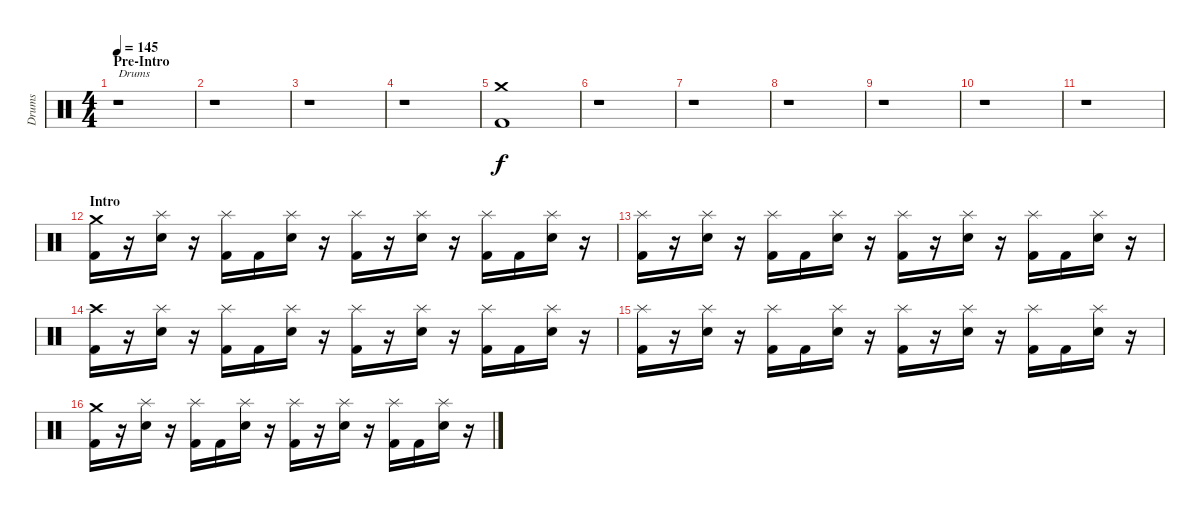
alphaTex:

\track ("Drums" "Drums") {instrument percussion}
\staff {score}
\articulation defaults
\ts (4 4)
\section ("" "Pre-Intro")
\tempo 145
\clef neutral
\ks c
r.1{txt "Drums" dy f} |
r.1 |
r.1 |
r.1 |
("Crash medium (hit)" "Kick (hit) 2").1 |
r.1 |
r.1 |
r.1 |
r.1 |
r.1 |
r.1 |
\section ("" "Intro")
("Crash medium (hit)" "Kick (hit) 2").16 r.16 ("Splash (hit)" "Snare (hit) 2").16 r.16 ("Splash (hit)" "Kick (hit) 2").16 "Kick (hit) 2".16 ("Splash (hit)" "Snare (hit) 2").16 r.16 ("Splash (hit)" "Kick (hit) 2").16 r.16 ("Splash (hit)" "Snare (hit) 2").16 r.16 ("Splash (hit)" "Kick (hit) 2").16 "Kick (hit) 2".16 ("Splash (hit)" "Snare (hit) 2").16 r.16 |
("Splash (hit)" "Kick (hit) 2").16 r.16 ("Splash (hit)" "Snare (hit) 2").16 r.16 ("Splash (hit)" "Kick (hit) 2").16 "Kick (hit) 2".16 ("Splash (hit)" "Snare (hit) 2").16 r.16 ("Splash (hit)" "Kick (hit) 2").16 r.16 ("Splash (hit)" "Snare (hit) 2").16 r.16 ("Splash (hit)" "Kick (hit) 2").16 "Kick (hit) 2".16 ("Splash (hit)" "Snare (hit) 2").16 r.16 |
("Crash high (hit)" "Kick (hit) 2").16 r.16 ("Splash (hit)" "Snare (hit) 2").16 r.16 ("Splash (hit)" "Kick (hit) 2").16 "Kick (hit) 2".16 ("Splash (hit)" "Snare (hit) 2").16 r.16 ("Splash (hit)" "Kick (hit) 2").16 r.16 ("Splash (hit)" "Snare (hit) 2").16 r.16 ("Splash (hit)" "Kick (hit) 2").16 "Kick (hit) 2".16 ("Splash (hit)" "Snare (hit) 2").16 r.16 |
("Splash (hit)" "Kick (hit) 2").16 r.16 ("Splash (hit)" "Snare (hit) 2").16 r.16 ("Splash (hit)" "Kick (hit) 2").16 "Kick (hit) 2".16 ("Splash (hit)" "Snare (hit) 2").16 r.16 ("Splash (hit)" "Kick (hit) 2").16 r.16 ("Splash (hit)" "Snare (hit) 2").16 r.16 ("Splash (hit)" "Kick (hit) 2").16 "Kick (hit) 2".16 ("Splash (hit)" "Snare (hit) 2").16 r.16 |
("Crash medium (hit)" "Kick (hit) 2").16 r.16 ("Splash (hit)" "Snare (hit) 2").16 r.16 ("Splash (hit)" "Kick (hit) 2").16 "Kick (hit) 2".16 ("Splash (hit)" "Snare (hit) 2").16 r.16 ("Splash (hit)" "Kick (hit) 2").16 r.16 ("Splash (hit)" "Snare (hit) 2").16 r.16 ("Splash (hit)" "Kick (hit) 2").16 "Kick (hit) 2".16 ("Splash (hit)" "Snare (hit) 2").16 r.16
